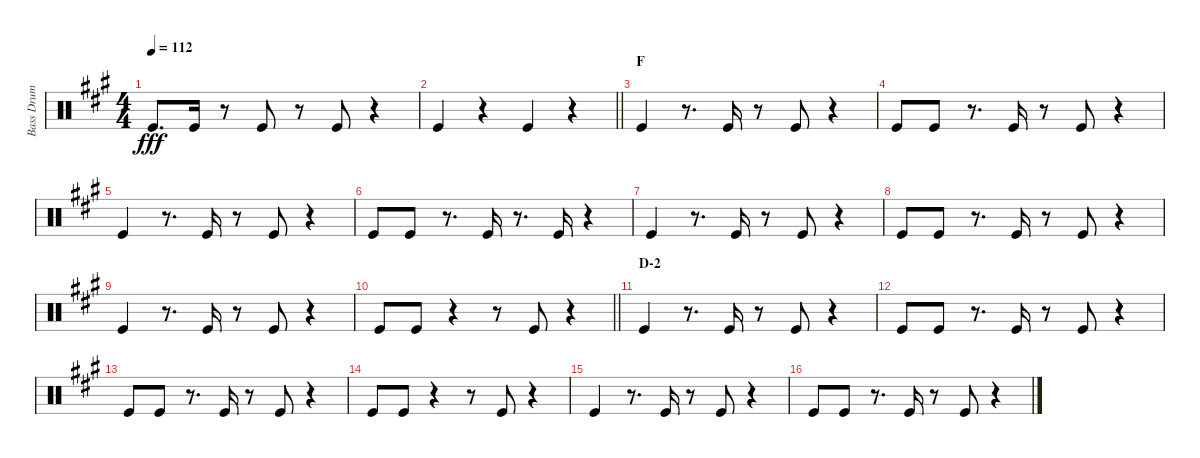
\track ("Bass Drum" "Bass Drum") {instrument percussion}
\staff {score}
\articulation defaults
\ts (4 4)
\tempo 112
\clef neutral
\ks a "Kick (hit)".8{d dy fff} "Kick (hit)".16
r.8 "Kick (hit)".8 r.8 "Kick (hit)".8 r.4 |
\barLineRight lightlight "Kick (hit)".4
r.4 "Kick (hit)".4 r.4 |
\section ("" "F")
"Kick (hit)".4 r.8{d} "Kick (hit)".16 r.8 "Kick (hit)".8 r.4 |
"Kick (hit)".8 "Kick (hit)".8 r.8{d} "Kick (hit)".16 r.8 "Kick (hit)".8 r.4 |
"Kick (hit)".4 r.8{d} "Kick (hit)".16 r.8 "Kick (hit)".8 r.4 |
"Kick (hit)".8 "Kick (hit)".8 r.8{d} "Kick (hit)".16 r.8{d} "Kick (hit)".16 r.4 |
"Kick (hit)".4 r.8{d} "Kick (hit)".16 r.8 "Kick (hit)".8 r.4 |
"Kick (hit)".8 "Kick (hit)".8 r.8{d} "Kick (hit)".16 r.8 "Kick (hit)".8 r.4 |
"Kick (hit)".4 r.8{d} "Kick (hit)".16 r.8 "Kick (hit)".8 r.4 |
\barLineRight lightlight "Kick (hit)".8 "Kick (hit)".8
r.4 r.8 "Kick (hit)".8 r.4 |
\section ("" "D-2")
"Kick (hit)".4 r.8{d} "Kick (hit)".16 r.8 "Kick (hit)".8 r.4 |
"Kick (hit)".8 "Kick (hit)".8 r.8{d} "Kick (hit)".16 r.8 "Kick (hit)".8 r.4 |
"Kick (hit)".8 "Kick (hit)".8 r.8{d} "Kick (hit)".16 r.8 "Kick (hit)".8 r.4 |
"Kick (hit)".8 "Kick (hit)".8 r.4 r.8 "Kick (hit)".8 r.4 |
"Kick (hit)".4 r.8{d} "Kick (hit)".16 r.8 "Kick (hit)".8 r.4 |
"Kick (hit)".8 "Kick (hit)".8 r.8{d} "Kick (hit)".16 r.8 "Kick (hit)".8 r.4
